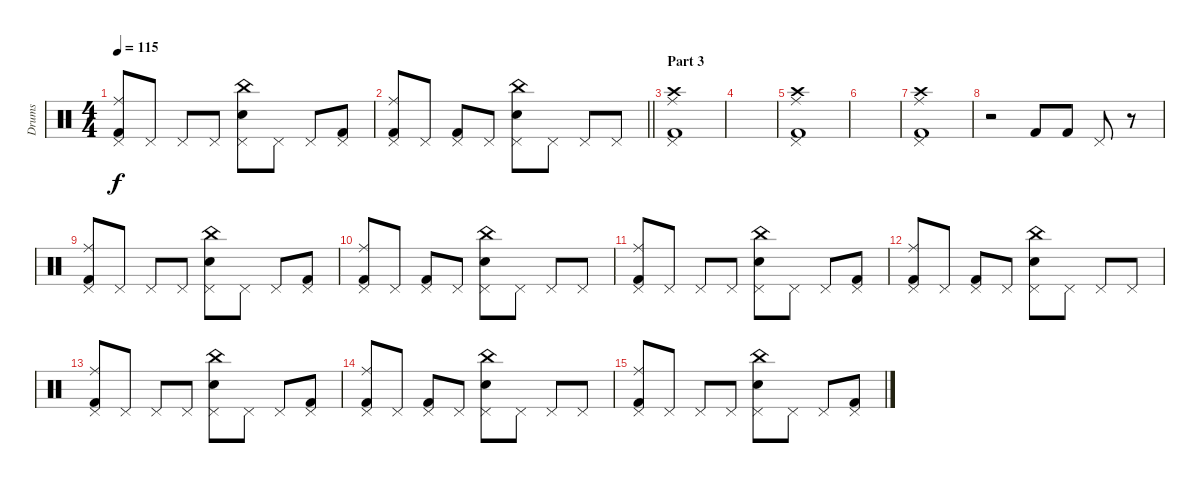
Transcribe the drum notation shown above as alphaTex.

\track ("Drums" "Drums") {instrument percussion}
\staff {score}
\articulation defaults
\ts (4 4)
\tempo 115
\clef neutral
\ks c
("Pedal Hi-Hat (hit)" "Ride (middle)" "Kick (hit) 2").8{dy f} "Pedal Hi-Hat (hit)".8 "Pedal Hi-Hat (hit)".8 "Pedal Hi-Hat (hit)".8 ("Pedal Hi-Hat (hit)" "Electric Snare (hit)" "China (hit)").8 "Pedal Hi-Hat (hit)".8 "Pedal Hi-Hat (hit)".8 ("Pedal Hi-Hat (hit)" "Kick (hit) 2").8 |
\barLineRight lightlight
("Pedal Hi-Hat (hit)" "Ride (middle)" "Kick (hit) 2").8 "Pedal Hi-Hat (hit)".8 ("Pedal Hi-Hat (hit)" "Kick (hit) 2").8 "Pedal Hi-Hat (hit)".8 ("Pedal Hi-Hat (hit)" "Electric Snare (hit)" "China (hit)").8 "Pedal Hi-Hat (hit)".8 "Pedal Hi-Hat (hit)".8 "Pedal Hi-Hat (hit)".8 |
\section ("" "Part 3")
("Pedal Hi-Hat (hit)" "Ride (middle)" "Kick (hit) 2" "Crash high (hit)").1 |
|
("Pedal Hi-Hat (hit)" "Ride (middle)" "Kick (hit) 2" "Crash high (hit)").1 |
|
("Pedal Hi-Hat (hit)" "Ride (middle)" "Kick (hit) 2" "Crash high (hit)").1 |
r.2 "Kick (hit) 2".8 "Kick (hit) 2".8 "Pedal Hi-Hat (hit)".8 r.8 |
("Pedal Hi-Hat (hit)" "Ride (middle)" "Kick (hit) 2").8 "Pedal Hi-Hat (hit)".8 "Pedal Hi-Hat (hit)".8 "Pedal Hi-Hat (hit)".8 ("Pedal Hi-Hat (hit)" "Electric Snare (hit)" "China (hit)").8 "Pedal Hi-Hat (hit)".8 "Pedal Hi-Hat (hit)".8 ("Pedal Hi-Hat (hit)" "Kick (hit) 2").8 |
("Pedal Hi-Hat (hit)" "Ride (middle)" "Kick (hit) 2").8 "Pedal Hi-Hat (hit)".8 ("Pedal Hi-Hat (hit)" "Kick (hit) 2").8 "Pedal Hi-Hat (hit)".8 ("Pedal Hi-Hat (hit)" "Electric Snare (hit)" "China (hit)").8 "Pedal Hi-Hat (hit)".8 "Pedal Hi-Hat (hit)".8 "Pedal Hi-Hat (hit)".8 |
("Pedal Hi-Hat (hit)" "Ride (middle)" "Kick (hit) 2").8 "Pedal Hi-Hat (hit)".8 "Pedal Hi-Hat (hit)".8 "Pedal Hi-Hat (hit)".8 ("Pedal Hi-Hat (hit)" "Electric Snare (hit)" "China (hit)").8 "Pedal Hi-Hat (hit)".8 "Pedal Hi-Hat (hit)".8 ("Pedal Hi-Hat (hit)" "Kick (hit) 2").8 |
("Pedal Hi-Hat (hit)" "Ride (middle)" "Kick (hit) 2").8 "Pedal Hi-Hat (hit)".8 ("Pedal Hi-Hat (hit)" "Kick (hit) 2").8 "Pedal Hi-Hat (hit)".8 ("Pedal Hi-Hat (hit)" "Electric Snare (hit)" "China (hit)").8 "Pedal Hi-Hat (hit)".8 "Pedal Hi-Hat (hit)".8 "Pedal Hi-Hat (hit)".8 |
("Pedal Hi-Hat (hit)" "Ride (middle)" "Kick (hit) 2").8 "Pedal Hi-Hat (hit)".8 "Pedal Hi-Hat (hit)".8 "Pedal Hi-Hat (hit)".8 ("Pedal Hi-Hat (hit)" "Electric Snare (hit)" "China (hit)").8 "Pedal Hi-Hat (hit)".8 "Pedal Hi-Hat (hit)".8 ("Pedal Hi-Hat (hit)" "Kick (hit) 2").8 |
("Pedal Hi-Hat (hit)" "Ride (middle)" "Kick (hit) 2").8 "Pedal Hi-Hat (hit)".8 ("Pedal Hi-Hat (hit)" "Kick (hit) 2").8 "Pedal Hi-Hat (hit)".8 ("Pedal Hi-Hat (hit)" "Electric Snare (hit)" "China (hit)").8 "Pedal Hi-Hat (hit)".8 "Pedal Hi-Hat (hit)".8 "Pedal Hi-Hat (hit)".8 |
("Pedal Hi-Hat (hit)" "Ride (middle)" "Kick (hit) 2").8 "Pedal Hi-Hat (hit)".8 "Pedal Hi-Hat (hit)".8 "Pedal Hi-Hat (hit)".8 ("Pedal Hi-Hat (hit)" "Electric Snare (hit)" "China (hit)").8 "Pedal Hi-Hat (hit)".8 "Pedal Hi-Hat (hit)".8 ("Pedal Hi-Hat (hit)" "Kick (hit) 2").8
